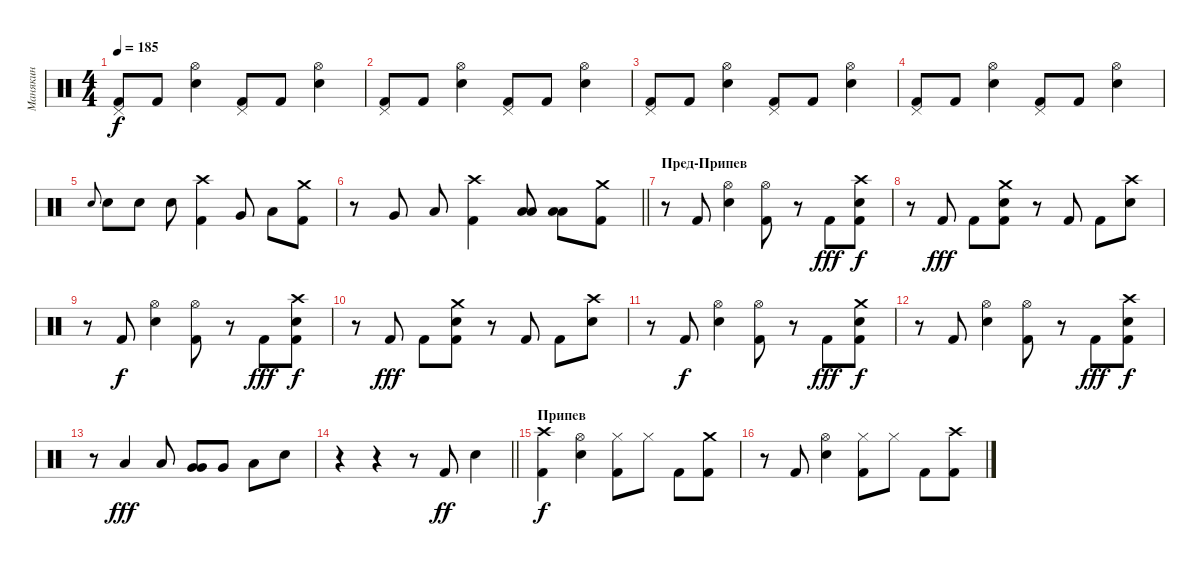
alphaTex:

\track ("Манякин" "Манякин") {instrument percussion}
\staff {score}
\articulation defaults
\ts (4 4)
\tempo 185
\clef neutral
\ks c
("Pedal Hi-Hat (hit)" "Kick (hit) 2").8{dy f} "Kick (hit) 2".8 ("Hi-Hat (open)" "Electric Snare (hit)").4 ("Pedal Hi-Hat (hit)" "Kick (hit) 2").8 "Kick (hit) 2".8 ("Hi-Hat (open)" "Electric Snare (hit)").4 |
("Pedal Hi-Hat (hit)" "Kick (hit) 2").8 "Kick (hit) 2".8 ("Hi-Hat (open)" "Electric Snare (hit)").4 ("Pedal Hi-Hat (hit)" "Kick (hit) 2").8 "Kick (hit) 2".8 ("Hi-Hat (open)" "Electric Snare (hit)").4 |
("Pedal Hi-Hat (hit)" "Kick (hit) 2").8 "Kick (hit) 2".8 ("Hi-Hat (open)" "Electric Snare (hit)").4 ("Pedal Hi-Hat (hit)" "Kick (hit) 2").8 "Kick (hit) 2".8 ("Hi-Hat (open)" "Electric Snare (hit)").4 |
("Pedal Hi-Hat (hit)" "Kick (hit) 2").8 "Kick (hit) 2".8 ("Hi-Hat (open)" "Electric Snare (hit)").4 ("Pedal Hi-Hat (hit)" "Kick (hit) 2").8 "Kick (hit) 2".8 ("Hi-Hat (open)" "Electric Snare (hit)").4 |
"Electric Snare (hit)".8{gr onbeat} "Electric Snare (hit)".8 "Electric Snare (hit)".8 "Electric Snare (hit)".8 ("Crash high (hit)" "Kick (hit) 2").4 "Very Low Tom (hit)".8 "Low Tom (hit)".8 ("Crash medium (hit)" "Kick (hit) 2").8 |
\barLineRight lightlight
r.8 "Very Low Tom (hit)".8 "Low Floor Tom (hit)".8 ("Crash high (hit)" "Kick (hit) 2").4 ("Low Floor Tom (hit)" "Low Floor Tom (hit)").8 ("Low Floor Tom (hit)" "Low Floor Tom (hit)").8 ("Crash medium (hit)" "Kick (hit) 2").8 |
\section ("" "Пред-Припев")
r.8 "Kick (hit) 2".8 ("Hi-Hat (open)" "Electric Snare (hit)").4 ("Hi-Hat (open)" "Kick (hit) 2").8 r.8 "Kick (hit) 2".8{dy fff} ("Crash high (hit)" "Electric Snare (hit)" "Kick (hit) 2").8{dy f} |
r.8 "Kick (hit) 2".8{dy fff} "Kick (hit) 2".8 ("Crash medium (hit)" "Electric Snare (hit)" "Kick (hit) 2").8 r.8 "Kick (hit) 2".8 "Kick (hit) 2".8 ("Crash high (hit)" "Electric Snare (hit)").8 |
r.8 "Kick (hit) 2".8{dy f} ("Hi-Hat (open)" "Electric Snare (hit)").4 ("Hi-Hat (open)" "Kick (hit) 2").8 r.8 "Kick (hit) 2".8{dy fff} ("Crash high (hit)" "Electric Snare (hit)" "Kick (hit) 2").8{dy f} |
r.8 "Kick (hit) 2".8{dy fff} "Kick (hit) 2".8 ("Crash medium (hit)" "Electric Snare (hit)" "Kick (hit) 2").8 r.8 "Kick (hit) 2".8 "Kick (hit) 2".8 ("Crash high (hit)" "Electric Snare (hit)").8 |
r.8 "Kick (hit) 2".8{dy f} ("Hi-Hat (open)" "Electric Snare (hit)").4 ("Hi-Hat (open)" "Kick (hit) 2").8 r.8 "Kick (hit) 2".8{dy fff} ("Crash medium (hit)" "Electric Snare (hit)" "Kick (hit) 2").8{dy f} |
r.8 "Kick (hit) 2".8 ("Hi-Hat (open)" "Electric Snare (hit)").4 ("Hi-Hat (open)" "Kick (hit) 2").8 r.8 "Kick (hit) 2".8{dy fff} ("Crash high (hit)" "Electric Snare (hit)" "Kick (hit) 2").8{dy f} |
r.8 "Low Tom (hit)".4{dy fff} "Low Tom (hit)".8 ("Very Low Tom (hit)" "Very Low Tom (hit)").8 "Very Low Tom (hit)".8 "Low Floor Tom (hit)".8 "Electric Snare (hit)".8 |
\barLineRight lightlight
r.4 r.4 r.8 "Kick (hit) 2".8{dy ff} "Electric Snare (hit)".4 |
\section ("" "Припев")
("Crash high (hit)" "Kick (hit) 2").4{dy f} ("Hi-Hat (open)" "Electric Snare (hit)").4 ("Hi-Hat (closed)" "Kick (hit) 2").8 "Hi-Hat (closed)".8 "Kick (hit) 2".8 ("Crash medium (hit)" "Kick (hit) 2").8 |
r.8 "Kick (hit) 2".8 ("Hi-Hat (open)" "Electric Snare (hit)").4 ("Hi-Hat (closed)" "Kick (hit) 2").8 "Hi-Hat (closed)".8 "Kick (hit) 2".8 ("Crash high (hit)" "Kick (hit) 2").8
